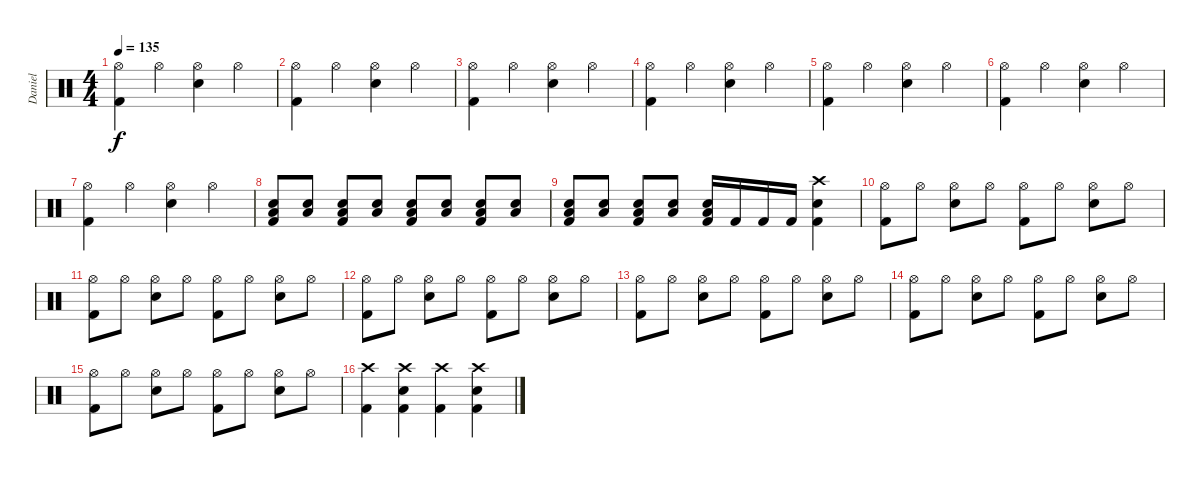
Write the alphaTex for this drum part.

\track ("Daniel" "Daniel") {instrument percussion}
\staff {score}
\articulation defaults
\ts (4 4)
\tempo 135
\clef neutral
\ks c
("Hi-Hat (open)" "Kick (hit) 2").4{dy f} "Hi-Hat (open)".4 ("Hi-Hat (open)" "Electric Snare (hit)").4 "Hi-Hat (open)".4 |
("Hi-Hat (open)" "Kick (hit) 2").4 "Hi-Hat (open)".4 ("Hi-Hat (open)" "Electric Snare (hit)").4 "Hi-Hat (open)".4 |
("Hi-Hat (open)" "Kick (hit) 2").4 "Hi-Hat (open)".4 ("Hi-Hat (open)" "Electric Snare (hit)").4 "Hi-Hat (open)".4 |
("Hi-Hat (open)" "Kick (hit) 2").4 "Hi-Hat (open)".4 ("Hi-Hat (open)" "Electric Snare (hit)").4 "Hi-Hat (open)".4 |
("Hi-Hat (open)" "Kick (hit) 2").4 "Hi-Hat (open)".4 ("Hi-Hat (open)" "Electric Snare (hit)").4 "Hi-Hat (open)".4 |
("Hi-Hat (open)" "Kick (hit) 2").4 "Hi-Hat (open)".4 ("Hi-Hat (open)" "Electric Snare (hit)").4 "Hi-Hat (open)".4 |
("Hi-Hat (open)" "Kick (hit) 2").4 "Hi-Hat (open)".4 ("Hi-Hat (open)" "Electric Snare (hit)").4 "Hi-Hat (open)".4 |
("Low Tom (hit)" "Electric Snare (hit)" "Kick (hit) 2").8{volume 5} ("Low Tom (hit)" "Electric Snare (hit)").8{volume 13} ("Low Tom (hit)" "Electric Snare (hit)" "Kick (hit) 2").8 ("Low Tom (hit)" "Electric Snare (hit)").8 ("Low Tom (hit)" "Electric Snare (hit)" "Kick (hit) 2").8 ("Low Tom (hit)" "Electric Snare (hit)").8 ("Low Tom (hit)" "Electric Snare (hit)" "Kick (hit) 2").8 ("Low Tom (hit)" "Electric Snare (hit)").8 |
("Low Tom (hit)" "Electric Snare (hit)" "Kick (hit) 2").8 ("Low Tom (hit)" "Electric Snare (hit)").8 ("Low Tom (hit)" "Electric Snare (hit)" "Kick (hit) 2").8 ("Low Tom (hit)" "Electric Snare (hit)").8 ("Low Tom (hit)" "Electric Snare (hit)" "Kick (hit) 2").16 "Kick (hit) 2".16 "Kick (hit) 2".16 "Kick (hit) 2".16 ("Crash high (hit)" "Electric Snare (hit)" "Kick (hit) 2").4 |
("Hi-Hat (open)" "Kick (hit) 2").8 "Hi-Hat (open)".8 ("Hi-Hat (open)" "Electric Snare (hit)").8 "Hi-Hat (open)".8 ("Hi-Hat (open)" "Kick (hit) 2").8 "Hi-Hat (open)".8 ("Hi-Hat (open)" "Electric Snare (hit)").8 "Hi-Hat (open)".8 |
("Hi-Hat (open)" "Kick (hit) 2").8 "Hi-Hat (open)".8 ("Hi-Hat (open)" "Electric Snare (hit)").8 "Hi-Hat (open)".8 ("Hi-Hat (open)" "Kick (hit) 2").8 "Hi-Hat (open)".8 ("Hi-Hat (open)" "Electric Snare (hit)").8 "Hi-Hat (open)".8 |
("Hi-Hat (open)" "Kick (hit) 2").8 "Hi-Hat (open)".8 ("Hi-Hat (open)" "Electric Snare (hit)").8 "Hi-Hat (open)".8 ("Hi-Hat (open)" "Kick (hit) 2").8 "Hi-Hat (open)".8 ("Hi-Hat (open)" "Electric Snare (hit)").8 "Hi-Hat (open)".8 |
("Hi-Hat (open)" "Kick (hit) 2").8 "Hi-Hat (open)".8 ("Hi-Hat (open)" "Electric Snare (hit)").8 "Hi-Hat (open)".8 ("Hi-Hat (open)" "Kick (hit) 2").8 "Hi-Hat (open)".8 ("Hi-Hat (open)" "Electric Snare (hit)").8 "Hi-Hat (open)".8 |
("Hi-Hat (open)" "Kick (hit) 2").8 "Hi-Hat (open)".8 ("Hi-Hat (open)" "Electric Snare (hit)").8 "Hi-Hat (open)".8 ("Hi-Hat (open)" "Kick (hit) 2").8 "Hi-Hat (open)".8 ("Hi-Hat (open)" "Electric Snare (hit)").8 "Hi-Hat (open)".8 |
("Hi-Hat (open)" "Kick (hit) 2").8 "Hi-Hat (open)".8 ("Hi-Hat (open)" "Electric Snare (hit)").8 "Hi-Hat (open)".8 ("Hi-Hat (open)" "Kick (hit) 2").8 "Hi-Hat (open)".8 ("Hi-Hat (open)" "Electric Snare (hit)").8 "Hi-Hat (open)".8 |
("Crash high (hit)" "Kick (hit) 2").4 ("Crash high (hit)" "Electric Snare (hit)" "Kick (hit) 2").4 ("Crash high (hit)" "Kick (hit) 2").4 ("Crash high (hit)" "Electric Snare (hit)" "Kick (hit) 2").4
